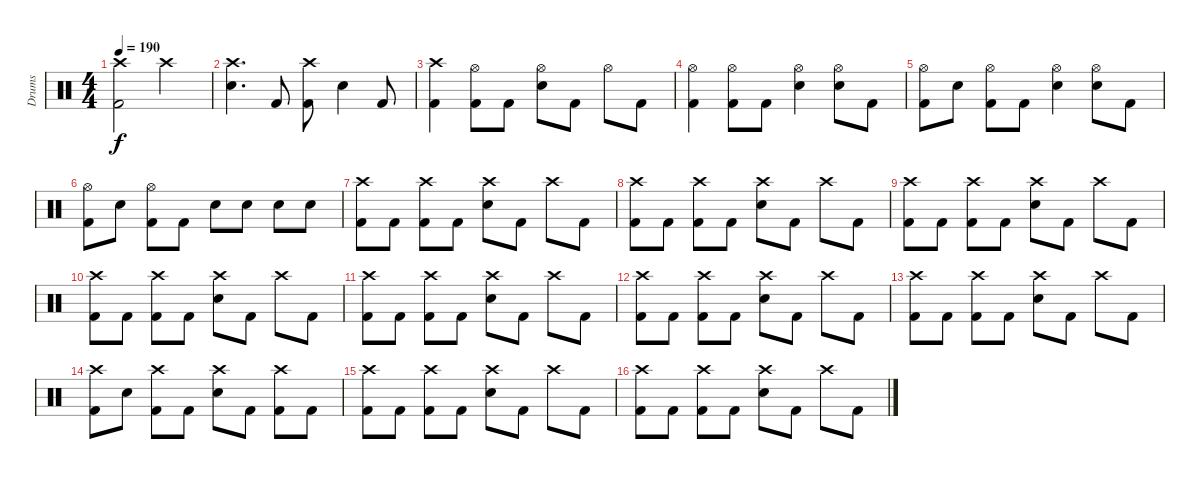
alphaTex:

\track ("Drums" "Drums") {instrument percussion}
\staff {score}
\articulation defaults
\ts (4 4)
\tempo 190
\clef neutral
\ks c
("Crash high (hit)" "Kick (hit) 2").2{dy f} "Crash high (hit)".2 |
("Crash high (hit)" "Electric Snare (hit)").4{d} "Kick (hit) 2".8 ("Crash high (hit)" "Kick (hit) 2").8 "Electric Snare (hit)".4 "Kick (hit) 2".8 |
("Crash high (hit)" "Kick (hit) 2").4 ("Hi-Hat (open)" "Kick (hit) 2").8 "Kick (hit) 2".8 ("Hi-Hat (open)" "Electric Snare (hit)").8 "Kick (hit) 2".8 "Hi-Hat (open)".8 "Kick (hit) 2".8 |
("Hi-Hat (open)" "Kick (hit) 2").4 ("Hi-Hat (open)" "Kick (hit) 2").8 "Kick (hit) 2".8 ("Hi-Hat (open)" "Electric Snare (hit)").4 ("Hi-Hat (open)" "Electric Snare (hit)").8 "Kick (hit) 2".8 |
("Hi-Hat (open)" "Kick (hit) 2").8 "Electric Snare (hit)".8 ("Hi-Hat (open)" "Kick (hit) 2").8 "Kick (hit) 2".8 ("Hi-Hat (open)" "Electric Snare (hit)").4 ("Hi-Hat (open)" "Electric Snare (hit)").8 "Kick (hit) 2".8 |
("Hi-Hat (open)" "Kick (hit) 2").8 "Electric Snare (hit)".8 ("Hi-Hat (open)" "Kick (hit) 2").8 "Kick (hit) 2".8 "Electric Snare (hit)".8 "Electric Snare (hit)".8 "Electric Snare (hit)".8 "Electric Snare (hit)".8 |
("Crash high (hit)" "Kick (hit) 2").8 "Kick (hit) 2".8 ("Crash high (hit)" "Kick (hit) 2").8 "Kick (hit) 2".8 ("Crash high (hit)" "Electric Snare (hit)").8 "Kick (hit) 2".8 "Crash high (hit)".8 "Kick (hit) 2".8 |
("Crash high (hit)" "Kick (hit) 2").8 "Kick (hit) 2".8 ("Crash high (hit)" "Kick (hit) 2").8 "Kick (hit) 2".8 ("Crash high (hit)" "Electric Snare (hit)").8 "Kick (hit) 2".8 "Crash high (hit)".8 "Kick (hit) 2".8 |
("Crash high (hit)" "Kick (hit) 2").8 "Kick (hit) 2".8 ("Crash high (hit)" "Kick (hit) 2").8 "Kick (hit) 2".8 ("Crash high (hit)" "Electric Snare (hit)").8 "Kick (hit) 2".8 "Crash high (hit)".8 "Kick (hit) 2".8 |
("Crash high (hit)" "Kick (hit) 2").8 "Kick (hit) 2".8 ("Crash high (hit)" "Kick (hit) 2").8 "Kick (hit) 2".8 ("Crash high (hit)" "Electric Snare (hit)").8 "Kick (hit) 2".8 "Crash high (hit)".8 "Kick (hit) 2".8 |
("Crash high (hit)" "Kick (hit) 2").8 "Kick (hit) 2".8 ("Crash high (hit)" "Kick (hit) 2").8 "Kick (hit) 2".8 ("Crash high (hit)" "Electric Snare (hit)").8 "Kick (hit) 2".8 "Crash high (hit)".8 "Kick (hit) 2".8 |
("Crash high (hit)" "Kick (hit) 2").8 "Kick (hit) 2".8 ("Crash high (hit)" "Kick (hit) 2").8 "Kick (hit) 2".8 ("Crash high (hit)" "Electric Snare (hit)").8 "Kick (hit) 2".8 "Crash high (hit)".8 "Kick (hit) 2".8 |
("Crash high (hit)" "Kick (hit) 2").8 "Kick (hit) 2".8 ("Crash high (hit)" "Kick (hit) 2").8 "Kick (hit) 2".8 ("Crash high (hit)" "Electric Snare (hit)").8 "Kick (hit) 2".8 "Crash high (hit)".8 "Kick (hit) 2".8 |
("Crash high (hit)" "Kick (hit) 2").8 "Electric Snare (hit)".8 ("Crash high (hit)" "Kick (hit) 2").8 "Kick (hit) 2".8 ("Crash high (hit)" "Electric Snare (hit)").8 "Kick (hit) 2".8 ("Crash high (hit)" "Kick (hit) 2").8 "Kick (hit) 2".8 |
("Crash high (hit)" "Kick (hit) 2").8 "Kick (hit) 2".8 ("Crash high (hit)" "Kick (hit) 2").8 "Kick (hit) 2".8 ("Crash high (hit)" "Electric Snare (hit)").8 "Kick (hit) 2".8 "Crash high (hit)".8 "Kick (hit) 2".8 |
("Crash high (hit)" "Kick (hit) 2").8 "Kick (hit) 2".8 ("Crash high (hit)" "Kick (hit) 2").8 "Kick (hit) 2".8 ("Crash high (hit)" "Electric Snare (hit)").8 "Kick (hit) 2".8 "Crash high (hit)".8 "Kick (hit) 2".8
